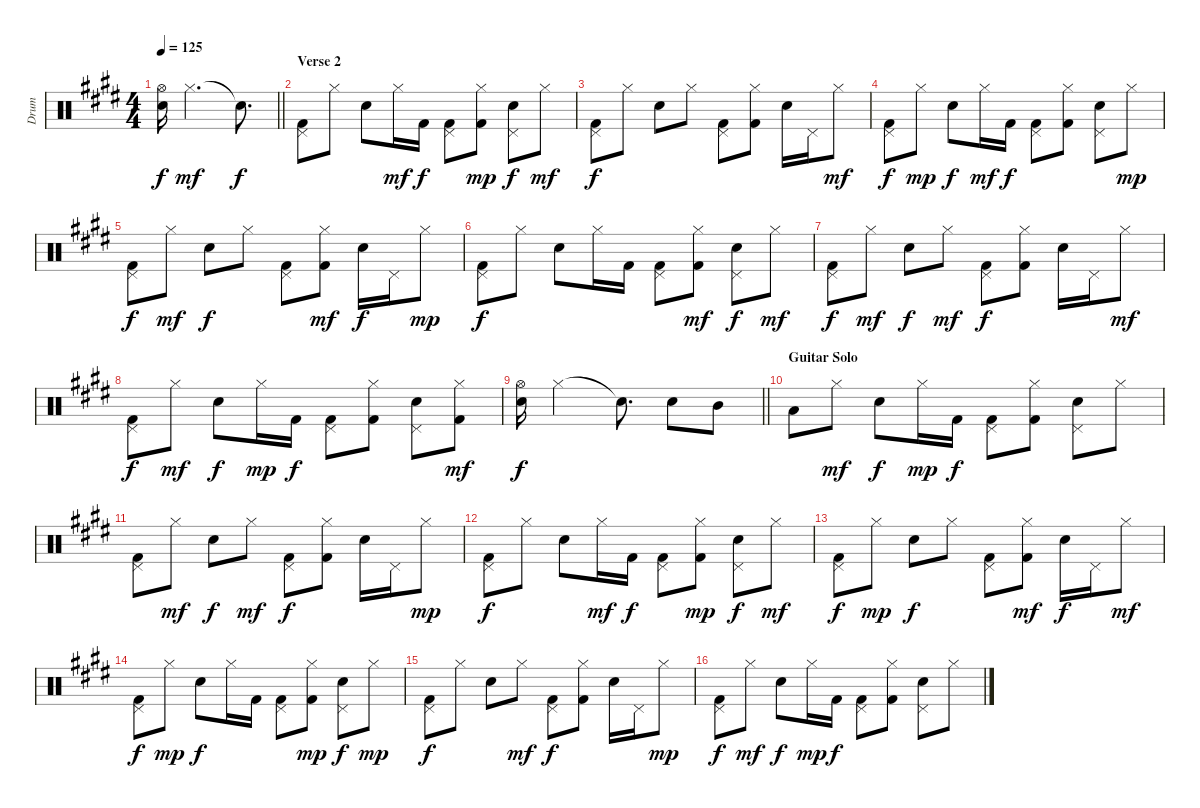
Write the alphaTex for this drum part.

\track ("Drum" "Drum") {instrument percussion}
\staff {score}
\articulation defaults
\ts (4 4)
\tempo 125
\clef neutral
\barLineRight lightlight
\ks e
("Snare (hit) 2" "Hi-Hat (open)").16{dy f} "Hi-Hat (closed)".2{d dy mf} "Snare (hit)"{t}.8{d dy f} |
\section ("" "Verse 2")
("Kick (hit) 2" "Pedal Hi-Hat (hit)").8 "Hi-Hat (closed)".8 "Snare (hit) 2".8 "Hi-Hat (closed)".16{dy mf} "Kick (hit) 2".16{dy f} ("Kick (hit) 2" "Pedal Hi-Hat (hit)").8 ("Kick (hit) 2" "Hi-Hat (closed)").8{dy mp} ("Snare (hit) 2" "Pedal Hi-Hat (hit)").8{dy f} "Hi-Hat (closed)".8{dy mf} |
("Kick (hit) 2" "Pedal Hi-Hat (hit)").8{dy f} "Hi-Hat (closed)".8 "Snare (hit) 2".8 "Hi-Hat (closed)".8 ("Kick (hit) 2" "Pedal Hi-Hat (hit)").8 ("Kick (hit) 2" "Hi-Hat (closed)").8 "Snare (hit) 2".16 "Pedal Hi-Hat (hit)".16 "Hi-Hat (closed)".8{dy mf} |
("Kick (hit) 2" "Pedal Hi-Hat (hit)").8{dy f} "Hi-Hat (closed)".8{dy mp} "Snare (hit) 2".8{dy f} "Hi-Hat (closed)".16{dy mf} "Kick (hit) 2".16{dy f} ("Kick (hit) 2" "Pedal Hi-Hat (hit)").8 ("Kick (hit) 2" "Hi-Hat (closed)").8 ("Snare (hit) 2" "Pedal Hi-Hat (hit)").8 "Hi-Hat (closed)".8{dy mp} |
("Kick (hit) 2" "Pedal Hi-Hat (hit)").8{dy f} "Hi-Hat (closed)".8{dy mf} "Snare (hit) 2".8{dy f} "Hi-Hat (closed)".8 ("Kick (hit) 2" "Pedal Hi-Hat (hit)").8 ("Kick (hit) 2" "Hi-Hat (closed)").8{dy mf} "Snare (hit) 2".16{dy f} "Pedal Hi-Hat (hit)".16 "Hi-Hat (closed)".8{dy mp} |
("Kick (hit) 2" "Pedal Hi-Hat (hit)").8{dy f} "Hi-Hat (closed)".8 "Snare (hit) 2".8 "Hi-Hat (closed)".16 "Kick (hit) 2".16 ("Kick (hit) 2" "Pedal Hi-Hat (hit)").8 ("Kick (hit) 2" "Hi-Hat (closed)").8{dy mf} ("Snare (hit) 2" "Pedal Hi-Hat (hit)").8{dy f} "Hi-Hat (closed)".8{dy mf} |
("Kick (hit) 2" "Pedal Hi-Hat (hit)").8{dy f} "Hi-Hat (closed)".8{dy mf} "Snare (hit) 2".8{dy f} "Hi-Hat (closed)".8{dy mf} ("Kick (hit) 2" "Pedal Hi-Hat (hit)").8{dy f} ("Kick (hit) 2" "Hi-Hat (closed)").8 "Snare (hit) 2".16 "Pedal Hi-Hat (hit)".16 "Hi-Hat (closed)".8{dy mf} |
("Kick (hit) 2" "Pedal Hi-Hat (hit)").8{dy f} "Hi-Hat (closed)".8{dy mf} "Snare (hit) 2".8{dy f} "Hi-Hat (closed)".16{dy mp} "Kick (hit) 2".16{dy f} ("Kick (hit) 2" "Pedal Hi-Hat (hit)").8 ("Kick (hit) 2" "Hi-Hat (closed)").8 ("Snare (hit) 2" "Pedal Hi-Hat (hit)").8 ("Kick (hit) 2" "Hi-Hat (closed)").8{dy mf} |
\barLineRight lightlight
("Snare (hit) 2" "Hi-Hat (open)").16{dy f} "Hi-Hat (closed)".2 "Snare (hit)"{t}.8{d} "Snare (hit) 2".8 "Mid Tom (hit)".8 |
\section ("" "Guitar Solo")
"Low Tom (hit)".8 "Hi-Hat (closed)".8{dy mf} "Snare (hit) 2".8{dy f} "Hi-Hat (closed)".16{dy mp} "Kick (hit) 2".16{dy f} ("Kick (hit) 2" "Pedal Hi-Hat (hit)").8 ("Kick (hit) 2" "Hi-Hat (closed)").8 ("Snare (hit) 2" "Pedal Hi-Hat (hit)").8 "Hi-Hat (closed)".8 |
("Kick (hit) 2" "Pedal Hi-Hat (hit)").8 "Hi-Hat (closed)".8{dy mf} "Snare (hit) 2".8{dy f} "Hi-Hat (closed)".8{dy mf} ("Kick (hit) 2" "Pedal Hi-Hat (hit)").8{dy f} ("Kick (hit) 2" "Hi-Hat (closed)").8 "Snare (hit) 2".16 "Pedal Hi-Hat (hit)".16 "Hi-Hat (closed)".8{dy mp} |
("Kick (hit) 2" "Pedal Hi-Hat (hit)").8{dy f} "Hi-Hat (closed)".8 "Snare (hit) 2".8 "Hi-Hat (closed)".16{dy mf} "Kick (hit) 2".16{dy f} ("Kick (hit) 2" "Pedal Hi-Hat (hit)").8 ("Kick (hit) 2" "Hi-Hat (closed)").8{dy mp} ("Snare (hit) 2" "Pedal Hi-Hat (hit)").8{dy f} "Hi-Hat (closed)".8{dy mf} |
("Kick (hit) 2" "Pedal Hi-Hat (hit)").8{dy f} "Hi-Hat (closed)".8{dy mp} "Snare (hit) 2".8{dy f} "Hi-Hat (closed)".8 ("Kick (hit) 2" "Pedal Hi-Hat (hit)").8 ("Kick (hit) 2" "Hi-Hat (closed)").8{dy mf} "Snare (hit) 2".16{dy f} "Pedal Hi-Hat (hit)".16 "Hi-Hat (closed)".8{dy mf} |
("Kick (hit) 2" "Pedal Hi-Hat (hit)").8{dy f} "Hi-Hat (closed)".8{dy mp} "Snare (hit) 2".8{dy f} "Hi-Hat (closed)".16 "Kick (hit) 2".16 ("Kick (hit) 2" "Pedal Hi-Hat (hit)").8 ("Kick (hit) 2" "Hi-Hat (closed)").8{dy mp} ("Snare (hit) 2" "Pedal Hi-Hat (hit)").8{dy f} "Hi-Hat (closed)".8{dy mp} |
("Kick (hit) 2" "Pedal Hi-Hat (hit)").8{dy f} "Hi-Hat (closed)".8 "Snare (hit) 2".8 "Hi-Hat (closed)".8{dy mf} ("Kick (hit) 2" "Pedal Hi-Hat (hit)").8{dy f} ("Kick (hit) 2" "Hi-Hat (closed)").8 "Snare (hit) 2".16 "Pedal Hi-Hat (hit)".16 "Hi-Hat (closed)".8{dy mp} |
("Kick (hit) 2" "Pedal Hi-Hat (hit)").8{dy f} "Hi-Hat (closed)".8{dy mf} "Snare (hit) 2".8{dy f} "Hi-Hat (closed)".16{dy mp} "Kick (hit) 2".16{dy f} ("Kick (hit) 2" "Pedal Hi-Hat (hit)").8 ("Kick (hit) 2" "Hi-Hat (closed)").8 ("Snare (hit) 2" "Pedal Hi-Hat (hit)").8 "Hi-Hat (closed)".8
